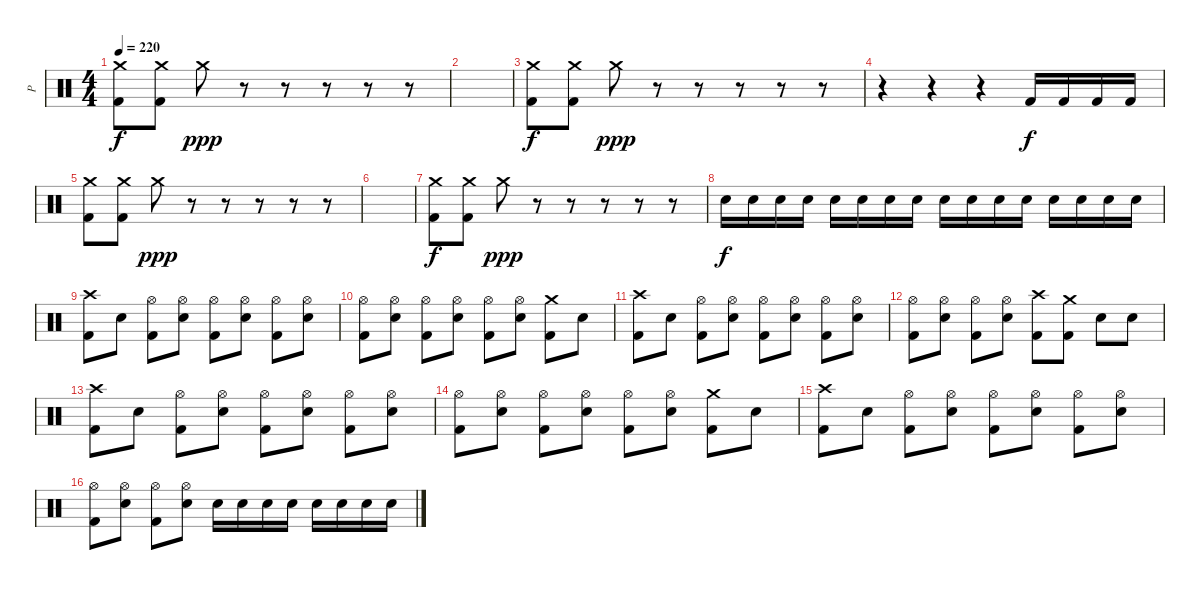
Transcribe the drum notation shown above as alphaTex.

\track ("P" "P") {instrument percussion}
\staff {score}
\articulation defaults
\ts (4 4)
\tempo 220
\clef neutral
\ks c
("Crash medium (hit)" "Kick (hit) 2").8{dy f} ("Crash medium (hit)" "Kick (hit) 2").8 "Crash medium (hit)".8{dy ppp} r.8 r.8 r.8 r.8 r.8 |
|
("Crash medium (hit)" "Kick (hit) 2").8{dy f} ("Crash medium (hit)" "Kick (hit) 2").8 "Crash medium (hit)".8{dy ppp} r.8 r.8 r.8 r.8 r.8 |
r.4 r.4 r.4 "Kick (hit) 2".16{dy f} "Kick (hit) 2".16 "Kick (hit) 2".16 "Kick (hit) 2".16 |
("Crash medium (hit)" "Kick (hit) 2").8 ("Crash medium (hit)" "Kick (hit) 2").8 "Crash medium (hit)".8{dy ppp} r.8 r.8 r.8 r.8 r.8 |
|
("Crash medium (hit)" "Kick (hit) 2").8{dy f} ("Crash medium (hit)" "Kick (hit) 2").8 "Crash medium (hit)".8{dy ppp} r.8 r.8 r.8 r.8 r.8 |
"Electric Snare (hit)".16{dy f} "Electric Snare (hit)".16 "Electric Snare (hit)".16 "Electric Snare (hit)".16 "Electric Snare (hit)".16 "Electric Snare (hit)".16 "Electric Snare (hit)".16 "Electric Snare (hit)".16 "Electric Snare (hit)".16 "Electric Snare (hit)".16 "Electric Snare (hit)".16 "Electric Snare (hit)".16 "Electric Snare (hit)".16 "Electric Snare (hit)".16 "Electric Snare (hit)".16 "Electric Snare (hit)".16 |
("Crash high (hit)" "Kick (hit) 2").8 "Electric Snare (hit)".8 ("Hi-Hat (open)" "Kick (hit) 2").8 ("Hi-Hat (open)" "Electric Snare (hit)").8 ("Hi-Hat (open)" "Kick (hit) 2").8 ("Hi-Hat (open)" "Electric Snare (hit)").8 ("Hi-Hat (open)" "Kick (hit) 2").8 ("Hi-Hat (open)" "Electric Snare (hit)").8 |
("Hi-Hat (open)" "Kick (hit) 2").8 ("Hi-Hat (open)" "Electric Snare (hit)").8 ("Hi-Hat (open)" "Kick (hit) 2").8 ("Hi-Hat (open)" "Electric Snare (hit)").8 ("Hi-Hat (open)" "Kick (hit) 2").8 ("Hi-Hat (open)" "Electric Snare (hit)").8 ("Crash medium (hit)" "Kick (hit) 2").8 "Electric Snare (hit)".8 |
("Crash high (hit)" "Kick (hit) 2").8 "Electric Snare (hit)".8 ("Hi-Hat (open)" "Kick (hit) 2").8 ("Hi-Hat (open)" "Electric Snare (hit)").8 ("Hi-Hat (open)" "Kick (hit) 2").8 ("Hi-Hat (open)" "Electric Snare (hit)").8 ("Hi-Hat (open)" "Kick (hit) 2").8 ("Hi-Hat (open)" "Electric Snare (hit)").8 |
("Hi-Hat (open)" "Kick (hit) 2").8 ("Hi-Hat (open)" "Electric Snare (hit)").8 ("Hi-Hat (open)" "Kick (hit) 2").8 ("Hi-Hat (open)" "Electric Snare (hit)").8 ("Crash high (hit)" "Kick (hit) 2").8 ("Crash medium (hit)" "Kick (hit) 2").8 "Electric Snare (hit)".8 "Electric Snare (hit)".8 |
("Crash high (hit)" "Kick (hit) 2").8 "Electric Snare (hit)".8 ("Hi-Hat (open)" "Kick (hit) 2").8 ("Hi-Hat (open)" "Electric Snare (hit)").8 ("Hi-Hat (open)" "Kick (hit) 2").8 ("Hi-Hat (open)" "Electric Snare (hit)").8 ("Hi-Hat (open)" "Kick (hit) 2").8 ("Hi-Hat (open)" "Electric Snare (hit)").8 |
("Hi-Hat (open)" "Kick (hit) 2").8 ("Hi-Hat (open)" "Electric Snare (hit)").8 ("Hi-Hat (open)" "Kick (hit) 2").8 ("Hi-Hat (open)" "Electric Snare (hit)").8 ("Hi-Hat (open)" "Kick (hit) 2").8 ("Hi-Hat (open)" "Electric Snare (hit)").8 ("Crash medium (hit)" "Kick (hit) 2").8 "Electric Snare (hit)".8 |
("Crash high (hit)" "Kick (hit) 2").8 "Electric Snare (hit)".8 ("Hi-Hat (open)" "Kick (hit) 2").8 ("Hi-Hat (open)" "Electric Snare (hit)").8 ("Hi-Hat (open)" "Kick (hit) 2").8 ("Hi-Hat (open)" "Electric Snare (hit)").8 ("Hi-Hat (open)" "Kick (hit) 2").8 ("Hi-Hat (open)" "Electric Snare (hit)").8 |
("Hi-Hat (open)" "Kick (hit) 2").8 ("Hi-Hat (open)" "Electric Snare (hit)").8 ("Hi-Hat (open)" "Kick (hit) 2").8 ("Hi-Hat (open)" "Electric Snare (hit)").8 "Electric Snare (hit)".16 "Electric Snare (hit)".16 "Electric Snare (hit)".16 "Electric Snare (hit)".16 "Electric Snare (hit)".16 "Electric Snare (hit)".16 "Electric Snare (hit)".16 "Electric Snare (hit)".16
